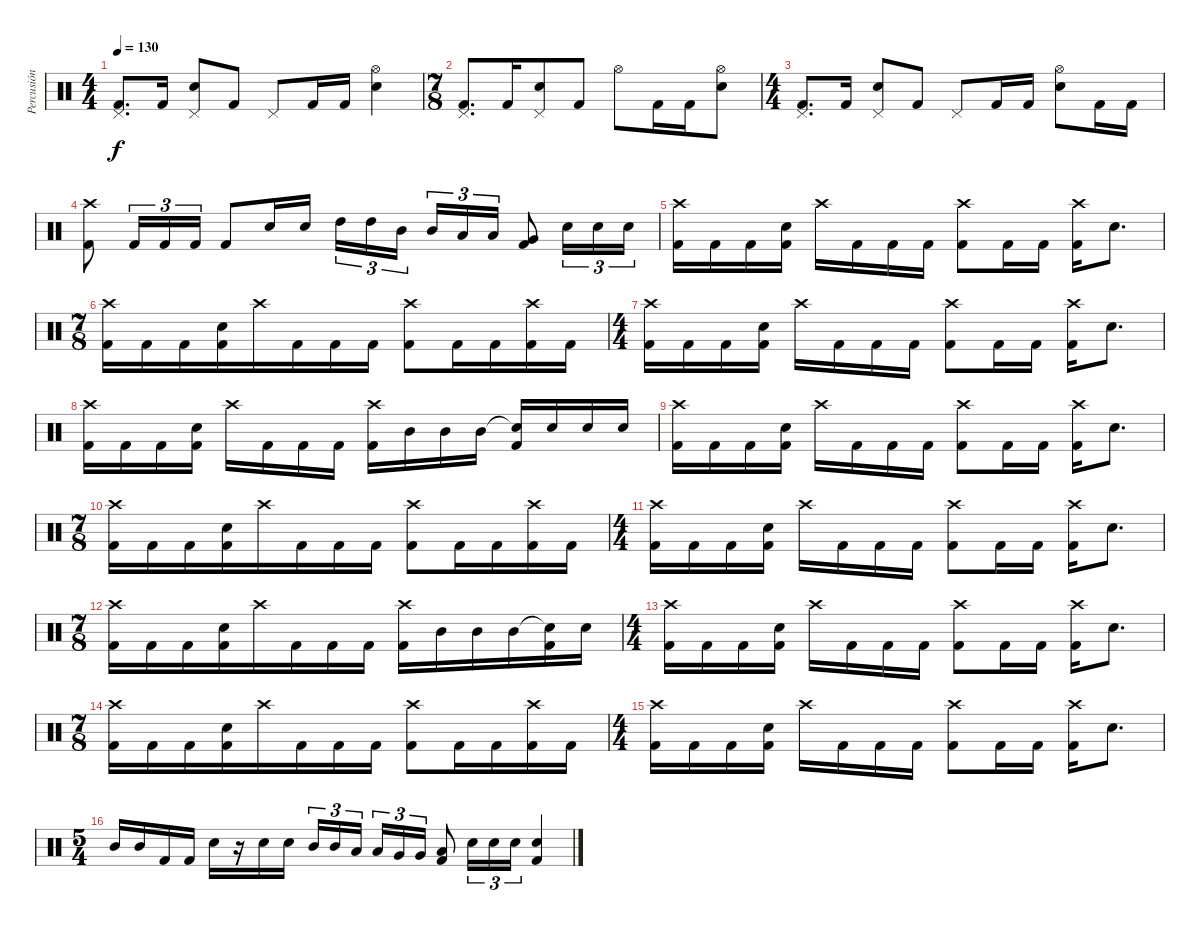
\track ("Percusión" "Percusión") {instrument percussion}
\staff {score}
\articulation defaults
\ts (4 4)
\tempo 130
\clef neutral
\ks c
("Pedal Hi-Hat (hit)" "Kick (hit) 2").8{d dy f} "Kick (hit) 2".16 ("Pedal Hi-Hat (hit)" "Snare (hit) 2").8 "Kick (hit) 2".8 "Pedal Hi-Hat (hit)".8 "Kick (hit) 2".16 "Kick (hit) 2".16 ("Hi-Hat (open)" "Snare (hit) 2").4 |
\ts (7 8)
("Pedal Hi-Hat (hit)" "Kick (hit) 2").8{d} "Kick (hit) 2".16 ("Pedal Hi-Hat (hit)" "Snare (hit) 2").8 "Kick (hit) 2".8 "Hi-Hat (open)".8 "Kick (hit) 2".16 "Kick (hit) 2".16 ("Hi-Hat (open)" "Snare (hit) 2").8 |
\ts (4 4)
("Pedal Hi-Hat (hit)" "Kick (hit) 2").8{d} "Kick (hit) 2".16 ("Pedal Hi-Hat (hit)" "Snare (hit) 2").8 "Kick (hit) 2".8 "Pedal Hi-Hat (hit)".8 "Kick (hit) 2".16 "Kick (hit) 2".16 ("Hi-Hat (open)" "Snare (hit) 2").8 "Kick (hit) 2".16 "Kick (hit) 2".16 |
("Crash high (hit)" "Kick (hit) 2").8 "Kick (hit) 2".16{tu (3 2)} "Kick (hit) 2".16{tu (3 2)} "Kick (hit) 2".16{tu (3 2)} "Kick (hit) 2".8 "Snare (hit) 2".16 "Snare (hit) 2".16 "High Tom (hit)".16{tu (3 2)} "High Tom (hit)".16{tu (3 2)} "Mid Tom (hit)".16{tu (3 2) beam splitsecondary} "Mid Tom (hit)".16{tu (3 2)} "Low Tom (hit)".16{tu (3 2)} "Low Tom (hit)".16{tu (3 2)} ("Very Low Tom (hit)" "Kick (hit) 2").8 "Snare (hit) 2".16{tu (3 2)} "Snare (hit) 2".16{tu (3 2)} "Snare (hit) 2".16{tu (3 2)} |
("Crash high (hit)" "Kick (hit) 2").16 "Kick (hit) 2".16 "Kick (hit) 2".16 ("Snare (hit) 2" "Kick (hit) 2").16 "Crash high (hit)".16 "Kick (hit) 2".16 "Kick (hit) 2".16 "Kick (hit) 2".16 ("Crash high (hit)" "Kick (hit) 2").8 "Kick (hit) 2".16 "Kick (hit) 2".16 ("Crash high (hit)" "Kick (hit) 2").16 "Snare (hit) 2".8{d} |
\ts (7 8)
("Crash high (hit)" "Kick (hit) 2").16 "Kick (hit) 2".16 "Kick (hit) 2".16 ("Snare (hit) 2" "Kick (hit) 2").16 "Crash high (hit)".16 "Kick (hit) 2".16 "Kick (hit) 2".16 "Kick (hit) 2".16 ("Crash high (hit)" "Kick (hit) 2").8 "Kick (hit) 2".16 "Kick (hit) 2".16 ("Crash high (hit)" "Kick (hit) 2").16 "Kick (hit) 2".16 |
\ts (4 4)
("Crash high (hit)" "Kick (hit) 2").16 "Kick (hit) 2".16 "Kick (hit) 2".16 ("Snare (hit) 2" "Kick (hit) 2").16 "Crash high (hit)".16 "Kick (hit) 2".16 "Kick (hit) 2".16 "Kick (hit) 2".16 ("Crash high (hit)" "Kick (hit) 2").8 "Kick (hit) 2".16 "Kick (hit) 2".16 ("Crash high (hit)" "Kick (hit) 2").16 "Snare (hit) 2".8{d} |
("Crash high (hit)" "Kick (hit) 2").16 "Kick (hit) 2".16 "Kick (hit) 2".16 ("Snare (hit) 2" "Kick (hit) 2").16 "Crash high (hit)".16 "Kick (hit) 2".16 "Kick (hit) 2".16 "Kick (hit) 2".16 ("Crash high (hit)" "Kick (hit) 2").16 "Mid Tom (hit)".16 "Mid Tom (hit)".16 "Mid Tom (hit)".16 ("Snare (hit)"{t} "Kick (hit) 2").16 "Snare (hit) 2".16 "Snare (hit) 2".16 "Snare (hit) 2".16 |
("Crash high (hit)" "Kick (hit) 2").16 "Kick (hit) 2".16 "Kick (hit) 2".16 ("Snare (hit) 2" "Kick (hit) 2").16 "Crash high (hit)".16 "Kick (hit) 2".16 "Kick (hit) 2".16 "Kick (hit) 2".16 ("Crash high (hit)" "Kick (hit) 2").8 "Kick (hit) 2".16 "Kick (hit) 2".16 ("Crash high (hit)" "Kick (hit) 2").16 "Snare (hit) 2".8{d} |
\ts (7 8)
("Crash high (hit)" "Kick (hit) 2").16 "Kick (hit) 2".16 "Kick (hit) 2".16 ("Snare (hit) 2" "Kick (hit) 2").16 "Crash high (hit)".16 "Kick (hit) 2".16 "Kick (hit) 2".16 "Kick (hit) 2".16 ("Crash high (hit)" "Kick (hit) 2").8 "Kick (hit) 2".16 "Kick (hit) 2".16 ("Crash high (hit)" "Kick (hit) 2").16 "Kick (hit) 2".16 |
\ts (4 4)
("Crash high (hit)" "Kick (hit) 2").16 "Kick (hit) 2".16 "Kick (hit) 2".16 ("Snare (hit) 2" "Kick (hit) 2").16 "Crash high (hit)".16 "Kick (hit) 2".16 "Kick (hit) 2".16 "Kick (hit) 2".16 ("Crash high (hit)" "Kick (hit) 2").8 "Kick (hit) 2".16 "Kick (hit) 2".16 ("Crash high (hit)" "Kick (hit) 2").16 "Snare (hit) 2".8{d} |
\ts (7 8)
("Crash high (hit)" "Kick (hit) 2").16 "Kick (hit) 2".16 "Kick (hit) 2".16 ("Snare (hit) 2" "Kick (hit) 2").16 "Crash high (hit)".16 "Kick (hit) 2".16 "Kick (hit) 2".16 "Kick (hit) 2".16 ("Crash high (hit)" "Kick (hit) 2").16 "Mid Tom (hit)".16 "Mid Tom (hit)".16 "Mid Tom (hit)".16 ("Snare (hit)"{t} "Kick (hit) 2").16 "Snare (hit) 2".16 |
\ts (4 4)
("Crash high (hit)" "Kick (hit) 2").16 "Kick (hit) 2".16 "Kick (hit) 2".16 ("Snare (hit) 2" "Kick (hit) 2").16 "Crash high (hit)".16 "Kick (hit) 2".16 "Kick (hit) 2".16 "Kick (hit) 2".16 ("Crash high (hit)" "Kick (hit) 2").8 "Kick (hit) 2".16 "Kick (hit) 2".16 ("Crash high (hit)" "Kick (hit) 2").16 "Snare (hit) 2".8{d} |
\ts (7 8)
("Crash high (hit)" "Kick (hit) 2").16 "Kick (hit) 2".16 "Kick (hit) 2".16 ("Snare (hit) 2" "Kick (hit) 2").16 "Crash high (hit)".16 "Kick (hit) 2".16 "Kick (hit) 2".16 "Kick (hit) 2".16 ("Crash high (hit)" "Kick (hit) 2").8 "Kick (hit) 2".16 "Kick (hit) 2".16 ("Crash high (hit)" "Kick (hit) 2").16 "Kick (hit) 2".16 |
\ts (4 4)
("Crash high (hit)" "Kick (hit) 2").16 "Kick (hit) 2".16 "Kick (hit) 2".16 ("Snare (hit) 2" "Kick (hit) 2").16 "Crash high (hit)".16 "Kick (hit) 2".16 "Kick (hit) 2".16 "Kick (hit) 2".16 ("Crash high (hit)" "Kick (hit) 2").8 "Kick (hit) 2".16 "Kick (hit) 2".16 ("Crash high (hit)" "Kick (hit) 2").16 "Snare (hit) 2".8{d} |
\ts (5 4)
"Mid Tom (hit)".16 "Mid Tom (hit)".16 "Kick (hit) 2".16 "Kick (hit) 2".16 "Snare (hit) 2".16 r.16 "Snare (hit) 2".16 "Snare (hit) 2".16 "Mid Tom (hit)".16{tu (3 2)} "Mid Tom (hit)".16{tu (3 2)} "Low Tom (hit)".16{tu (3 2) beam splitsecondary} "Low Tom (hit)".16{tu (3 2)} "Very Low Tom (hit)".16{tu (3 2)} "Very Low Tom (hit)".16{tu (3 2)} ("Low Floor Tom (hit)" "Kick (hit) 2").8 "Snare (hit) 2".16{tu (3 2)} "Snare (hit) 2".16{tu (3 2)} "Snare (hit) 2".16{tu (3 2)} ("Snare (hit) 2" "Kick (hit) 2").4
